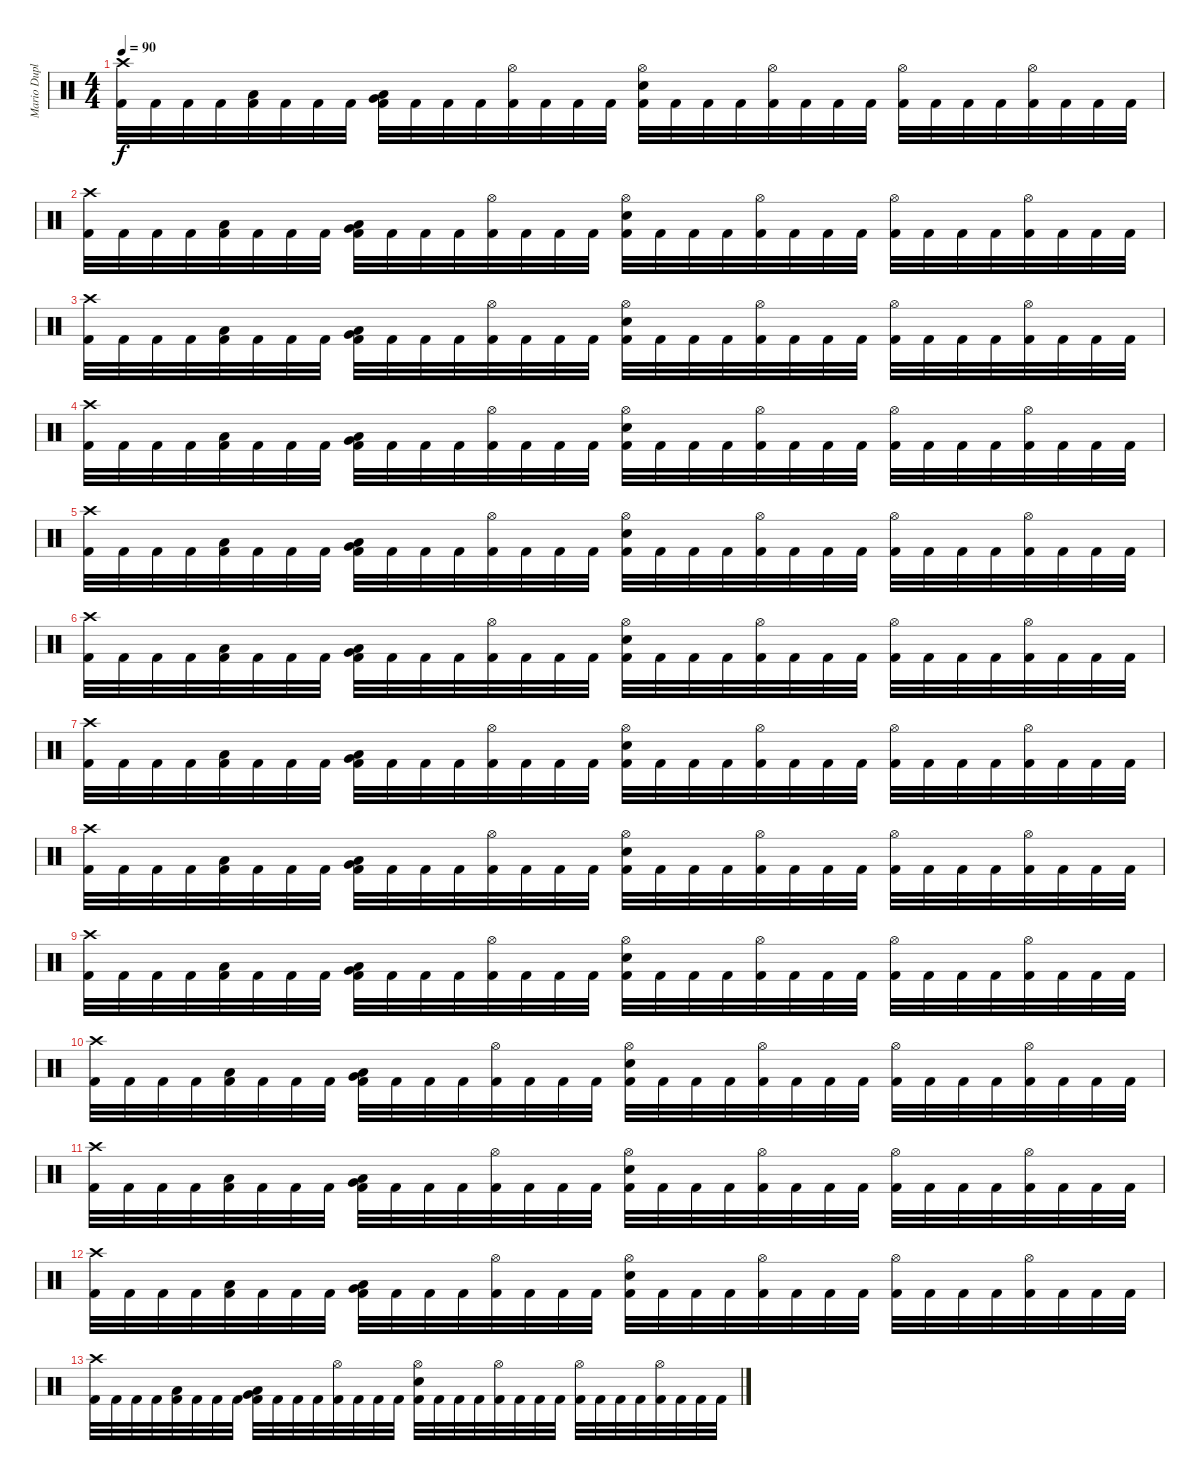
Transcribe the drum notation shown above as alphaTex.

\track ("Mario Duplantier" "Mario Dupl") {instrument percussion}
\staff {score}
\articulation defaults
\ts (4 4)
\tempo 90
\clef neutral
\ks c
("Crash high (hit)" "Kick (hit) 2").32{dy f} "Kick (hit) 2".32 "Kick (hit) 2".32 "Kick (hit) 2".32 ("Low Tom (hit)" "Kick (hit) 2").32 "Kick (hit) 2".32 "Kick (hit) 2".32 "Kick (hit) 2".32 ("Very Low Tom (hit)" "Low Floor Tom (hit)" "Kick (hit) 2").32 "Kick (hit) 2".32 "Kick (hit) 2".32 "Kick (hit) 2".32 ("Hi-Hat (open)" "Kick (hit) 2").32 "Kick (hit) 2".32 "Kick (hit) 2".32 "Kick (hit) 2".32 ("Hi-Hat (open)" "Electric Snare (hit)" "Kick (hit) 2").32 "Kick (hit) 2".32 "Kick (hit) 2".32 "Kick (hit) 2".32 ("Hi-Hat (open)" "Kick (hit) 2").32 "Kick (hit) 2".32 "Kick (hit) 2".32 "Kick (hit) 2".32 ("Hi-Hat (open)" "Kick (hit) 2").32 "Kick (hit) 2".32 "Kick (hit) 2".32 "Kick (hit) 2".32 ("Hi-Hat (open)" "Kick (hit) 2").32 "Kick (hit) 2".32 "Kick (hit) 2".32 "Kick (hit) 2".32 |
("Crash high (hit)" "Kick (hit) 2").32 "Kick (hit) 2".32 "Kick (hit) 2".32 "Kick (hit) 2".32 ("Low Tom (hit)" "Kick (hit) 2").32 "Kick (hit) 2".32 "Kick (hit) 2".32 "Kick (hit) 2".32 ("Very Low Tom (hit)" "Low Floor Tom (hit)" "Kick (hit) 2").32 "Kick (hit) 2".32 "Kick (hit) 2".32 "Kick (hit) 2".32 ("Hi-Hat (open)" "Kick (hit) 2").32 "Kick (hit) 2".32 "Kick (hit) 2".32 "Kick (hit) 2".32 ("Hi-Hat (open)" "Electric Snare (hit)" "Kick (hit) 2").32 "Kick (hit) 2".32 "Kick (hit) 2".32 "Kick (hit) 2".32 ("Hi-Hat (open)" "Kick (hit) 2").32 "Kick (hit) 2".32 "Kick (hit) 2".32 "Kick (hit) 2".32 ("Hi-Hat (open)" "Kick (hit) 2").32 "Kick (hit) 2".32 "Kick (hit) 2".32 "Kick (hit) 2".32 ("Hi-Hat (open)" "Kick (hit) 2").32 "Kick (hit) 2".32 "Kick (hit) 2".32 "Kick (hit) 2".32 |
("Crash high (hit)" "Kick (hit) 2").32 "Kick (hit) 2".32 "Kick (hit) 2".32 "Kick (hit) 2".32 ("Low Tom (hit)" "Kick (hit) 2").32 "Kick (hit) 2".32 "Kick (hit) 2".32 "Kick (hit) 2".32 ("Very Low Tom (hit)" "Low Floor Tom (hit)" "Kick (hit) 2").32 "Kick (hit) 2".32 "Kick (hit) 2".32 "Kick (hit) 2".32 ("Hi-Hat (open)" "Kick (hit) 2").32 "Kick (hit) 2".32 "Kick (hit) 2".32 "Kick (hit) 2".32 ("Hi-Hat (open)" "Electric Snare (hit)" "Kick (hit) 2").32 "Kick (hit) 2".32 "Kick (hit) 2".32 "Kick (hit) 2".32 ("Hi-Hat (open)" "Kick (hit) 2").32 "Kick (hit) 2".32 "Kick (hit) 2".32 "Kick (hit) 2".32 ("Hi-Hat (open)" "Kick (hit) 2").32 "Kick (hit) 2".32 "Kick (hit) 2".32 "Kick (hit) 2".32 ("Hi-Hat (open)" "Kick (hit) 2").32 "Kick (hit) 2".32 "Kick (hit) 2".32 "Kick (hit) 2".32 |
("Crash high (hit)" "Kick (hit) 2").32 "Kick (hit) 2".32 "Kick (hit) 2".32 "Kick (hit) 2".32 ("Low Tom (hit)" "Kick (hit) 2").32 "Kick (hit) 2".32 "Kick (hit) 2".32 "Kick (hit) 2".32 ("Very Low Tom (hit)" "Low Floor Tom (hit)" "Kick (hit) 2").32 "Kick (hit) 2".32 "Kick (hit) 2".32 "Kick (hit) 2".32 ("Hi-Hat (open)" "Kick (hit) 2").32 "Kick (hit) 2".32 "Kick (hit) 2".32 "Kick (hit) 2".32 ("Hi-Hat (open)" "Electric Snare (hit)" "Kick (hit) 2").32 "Kick (hit) 2".32 "Kick (hit) 2".32 "Kick (hit) 2".32 ("Hi-Hat (open)" "Kick (hit) 2").32 "Kick (hit) 2".32 "Kick (hit) 2".32 "Kick (hit) 2".32 ("Hi-Hat (open)" "Kick (hit) 2").32 "Kick (hit) 2".32 "Kick (hit) 2".32 "Kick (hit) 2".32 ("Hi-Hat (open)" "Kick (hit) 2").32 "Kick (hit) 2".32 "Kick (hit) 2".32 "Kick (hit) 2".32 |
("Crash high (hit)" "Kick (hit) 2").32 "Kick (hit) 2".32 "Kick (hit) 2".32 "Kick (hit) 2".32 ("Low Tom (hit)" "Kick (hit) 2").32 "Kick (hit) 2".32 "Kick (hit) 2".32 "Kick (hit) 2".32 ("Very Low Tom (hit)" "Low Floor Tom (hit)" "Kick (hit) 2").32 "Kick (hit) 2".32 "Kick (hit) 2".32 "Kick (hit) 2".32 ("Hi-Hat (open)" "Kick (hit) 2").32 "Kick (hit) 2".32 "Kick (hit) 2".32 "Kick (hit) 2".32 ("Hi-Hat (open)" "Electric Snare (hit)" "Kick (hit) 2").32 "Kick (hit) 2".32 "Kick (hit) 2".32 "Kick (hit) 2".32 ("Hi-Hat (open)" "Kick (hit) 2").32 "Kick (hit) 2".32 "Kick (hit) 2".32 "Kick (hit) 2".32 ("Hi-Hat (open)" "Kick (hit) 2").32 "Kick (hit) 2".32 "Kick (hit) 2".32 "Kick (hit) 2".32 ("Hi-Hat (open)" "Kick (hit) 2").32 "Kick (hit) 2".32 "Kick (hit) 2".32 "Kick (hit) 2".32 |
("Crash high (hit)" "Kick (hit) 2").32 "Kick (hit) 2".32 "Kick (hit) 2".32 "Kick (hit) 2".32 ("Low Tom (hit)" "Kick (hit) 2").32 "Kick (hit) 2".32 "Kick (hit) 2".32 "Kick (hit) 2".32 ("Very Low Tom (hit)" "Low Floor Tom (hit)" "Kick (hit) 2").32 "Kick (hit) 2".32 "Kick (hit) 2".32 "Kick (hit) 2".32 ("Hi-Hat (open)" "Kick (hit) 2").32 "Kick (hit) 2".32 "Kick (hit) 2".32 "Kick (hit) 2".32 ("Hi-Hat (open)" "Electric Snare (hit)" "Kick (hit) 2").32 "Kick (hit) 2".32 "Kick (hit) 2".32 "Kick (hit) 2".32 ("Hi-Hat (open)" "Kick (hit) 2").32 "Kick (hit) 2".32 "Kick (hit) 2".32 "Kick (hit) 2".32 ("Hi-Hat (open)" "Kick (hit) 2").32 "Kick (hit) 2".32 "Kick (hit) 2".32 "Kick (hit) 2".32 ("Hi-Hat (open)" "Kick (hit) 2").32 "Kick (hit) 2".32 "Kick (hit) 2".32 "Kick (hit) 2".32 |
("Crash high (hit)" "Kick (hit) 2").32 "Kick (hit) 2".32 "Kick (hit) 2".32 "Kick (hit) 2".32 ("Low Tom (hit)" "Kick (hit) 2").32 "Kick (hit) 2".32 "Kick (hit) 2".32 "Kick (hit) 2".32 ("Very Low Tom (hit)" "Low Floor Tom (hit)" "Kick (hit) 2").32 "Kick (hit) 2".32 "Kick (hit) 2".32 "Kick (hit) 2".32 ("Hi-Hat (open)" "Kick (hit) 2").32 "Kick (hit) 2".32 "Kick (hit) 2".32 "Kick (hit) 2".32 ("Hi-Hat (open)" "Electric Snare (hit)" "Kick (hit) 2").32 "Kick (hit) 2".32 "Kick (hit) 2".32 "Kick (hit) 2".32 ("Hi-Hat (open)" "Kick (hit) 2").32 "Kick (hit) 2".32 "Kick (hit) 2".32 "Kick (hit) 2".32 ("Hi-Hat (open)" "Kick (hit) 2").32 "Kick (hit) 2".32 "Kick (hit) 2".32 "Kick (hit) 2".32 ("Hi-Hat (open)" "Kick (hit) 2").32 "Kick (hit) 2".32 "Kick (hit) 2".32 "Kick (hit) 2".32 |
("Crash high (hit)" "Kick (hit) 2").32 "Kick (hit) 2".32 "Kick (hit) 2".32 "Kick (hit) 2".32 ("Low Tom (hit)" "Kick (hit) 2").32 "Kick (hit) 2".32 "Kick (hit) 2".32 "Kick (hit) 2".32 ("Very Low Tom (hit)" "Low Floor Tom (hit)" "Kick (hit) 2").32 "Kick (hit) 2".32 "Kick (hit) 2".32 "Kick (hit) 2".32 ("Hi-Hat (open)" "Kick (hit) 2").32 "Kick (hit) 2".32 "Kick (hit) 2".32 "Kick (hit) 2".32 ("Hi-Hat (open)" "Electric Snare (hit)" "Kick (hit) 2").32 "Kick (hit) 2".32 "Kick (hit) 2".32 "Kick (hit) 2".32 ("Hi-Hat (open)" "Kick (hit) 2").32 "Kick (hit) 2".32 "Kick (hit) 2".32 "Kick (hit) 2".32 ("Hi-Hat (open)" "Kick (hit) 2").32 "Kick (hit) 2".32 "Kick (hit) 2".32 "Kick (hit) 2".32 ("Hi-Hat (open)" "Kick (hit) 2").32 "Kick (hit) 2".32 "Kick (hit) 2".32 "Kick (hit) 2".32 |
("Crash high (hit)" "Kick (hit) 2").32 "Kick (hit) 2".32 "Kick (hit) 2".32 "Kick (hit) 2".32 ("Low Tom (hit)" "Kick (hit) 2").32 "Kick (hit) 2".32 "Kick (hit) 2".32 "Kick (hit) 2".32 ("Very Low Tom (hit)" "Low Floor Tom (hit)" "Kick (hit) 2").32 "Kick (hit) 2".32 "Kick (hit) 2".32 "Kick (hit) 2".32 ("Hi-Hat (open)" "Kick (hit) 2").32 "Kick (hit) 2".32 "Kick (hit) 2".32 "Kick (hit) 2".32 ("Hi-Hat (open)" "Electric Snare (hit)" "Kick (hit) 2").32 "Kick (hit) 2".32 "Kick (hit) 2".32 "Kick (hit) 2".32 ("Hi-Hat (open)" "Kick (hit) 2").32 "Kick (hit) 2".32 "Kick (hit) 2".32 "Kick (hit) 2".32 ("Hi-Hat (open)" "Kick (hit) 2").32 "Kick (hit) 2".32 "Kick (hit) 2".32 "Kick (hit) 2".32 ("Hi-Hat (open)" "Kick (hit) 2").32 "Kick (hit) 2".32 "Kick (hit) 2".32 "Kick (hit) 2".32 |
("Crash high (hit)" "Kick (hit) 2").32 "Kick (hit) 2".32 "Kick (hit) 2".32 "Kick (hit) 2".32 ("Low Tom (hit)" "Kick (hit) 2").32 "Kick (hit) 2".32 "Kick (hit) 2".32 "Kick (hit) 2".32 ("Very Low Tom (hit)" "Low Floor Tom (hit)" "Kick (hit) 2").32 "Kick (hit) 2".32 "Kick (hit) 2".32 "Kick (hit) 2".32 ("Hi-Hat (open)" "Kick (hit) 2").32 "Kick (hit) 2".32 "Kick (hit) 2".32 "Kick (hit) 2".32 ("Hi-Hat (open)" "Electric Snare (hit)" "Kick (hit) 2").32 "Kick (hit) 2".32 "Kick (hit) 2".32 "Kick (hit) 2".32 ("Hi-Hat (open)" "Kick (hit) 2").32 "Kick (hit) 2".32 "Kick (hit) 2".32 "Kick (hit) 2".32 ("Hi-Hat (open)" "Kick (hit) 2").32 "Kick (hit) 2".32 "Kick (hit) 2".32 "Kick (hit) 2".32 ("Hi-Hat (open)" "Kick (hit) 2").32 "Kick (hit) 2".32 "Kick (hit) 2".32 "Kick (hit) 2".32 |
("Crash high (hit)" "Kick (hit) 2").32 "Kick (hit) 2".32 "Kick (hit) 2".32 "Kick (hit) 2".32 ("Low Tom (hit)" "Kick (hit) 2").32 "Kick (hit) 2".32 "Kick (hit) 2".32 "Kick (hit) 2".32 ("Very Low Tom (hit)" "Low Floor Tom (hit)" "Kick (hit) 2").32 "Kick (hit) 2".32 "Kick (hit) 2".32 "Kick (hit) 2".32 ("Hi-Hat (open)" "Kick (hit) 2").32 "Kick (hit) 2".32 "Kick (hit) 2".32 "Kick (hit) 2".32 ("Hi-Hat (open)" "Electric Snare (hit)" "Kick (hit) 2").32 "Kick (hit) 2".32 "Kick (hit) 2".32 "Kick (hit) 2".32 ("Hi-Hat (open)" "Kick (hit) 2").32 "Kick (hit) 2".32 "Kick (hit) 2".32 "Kick (hit) 2".32 ("Hi-Hat (open)" "Kick (hit) 2").32 "Kick (hit) 2".32 "Kick (hit) 2".32 "Kick (hit) 2".32 ("Hi-Hat (open)" "Kick (hit) 2").32 "Kick (hit) 2".32 "Kick (hit) 2".32 "Kick (hit) 2".32 |
("Crash high (hit)" "Kick (hit) 2").32 "Kick (hit) 2".32 "Kick (hit) 2".32 "Kick (hit) 2".32 ("Low Tom (hit)" "Kick (hit) 2").32 "Kick (hit) 2".32 "Kick (hit) 2".32 "Kick (hit) 2".32 ("Very Low Tom (hit)" "Low Floor Tom (hit)" "Kick (hit) 2").32 "Kick (hit) 2".32 "Kick (hit) 2".32 "Kick (hit) 2".32 ("Hi-Hat (open)" "Kick (hit) 2").32 "Kick (hit) 2".32 "Kick (hit) 2".32 "Kick (hit) 2".32 ("Hi-Hat (open)" "Electric Snare (hit)" "Kick (hit) 2").32 "Kick (hit) 2".32 "Kick (hit) 2".32 "Kick (hit) 2".32 ("Hi-Hat (open)" "Kick (hit) 2").32 "Kick (hit) 2".32 "Kick (hit) 2".32 "Kick (hit) 2".32 ("Hi-Hat (open)" "Kick (hit) 2").32 "Kick (hit) 2".32 "Kick (hit) 2".32 "Kick (hit) 2".32 ("Hi-Hat (open)" "Kick (hit) 2").32 "Kick (hit) 2".32 "Kick (hit) 2".32 "Kick (hit) 2".32 |
("Crash high (hit)" "Kick (hit) 2").32 "Kick (hit) 2".32 "Kick (hit) 2".32 "Kick (hit) 2".32 ("Low Tom (hit)" "Kick (hit) 2").32 "Kick (hit) 2".32 "Kick (hit) 2".32 "Kick (hit) 2".32 ("Very Low Tom (hit)" "Low Floor Tom (hit)" "Kick (hit) 2").32 "Kick (hit) 2".32 "Kick (hit) 2".32 "Kick (hit) 2".32 ("Hi-Hat (open)" "Kick (hit) 2").32 "Kick (hit) 2".32 "Kick (hit) 2".32 "Kick (hit) 2".32 ("Hi-Hat (open)" "Electric Snare (hit)" "Kick (hit) 2").32 "Kick (hit) 2".32 "Kick (hit) 2".32 "Kick (hit) 2".32 ("Hi-Hat (open)" "Kick (hit) 2").32 "Kick (hit) 2".32 "Kick (hit) 2".32 "Kick (hit) 2".32 ("Hi-Hat (open)" "Kick (hit) 2").32 "Kick (hit) 2".32 "Kick (hit) 2".32 "Kick (hit) 2".32 ("Hi-Hat (open)" "Kick (hit) 2").32 "Kick (hit) 2".32 "Kick (hit) 2".32 "Kick (hit) 2".32
